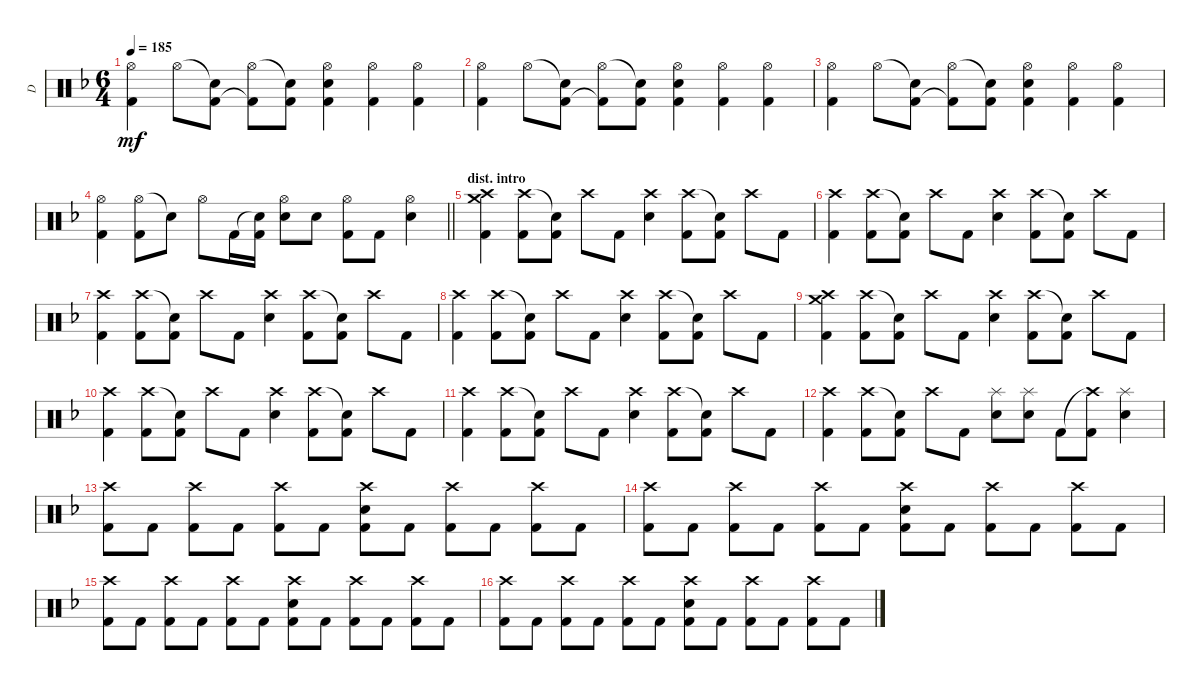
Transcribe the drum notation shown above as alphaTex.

\track ("D" "D") {instrument percussion}
\staff {score}
\articulation defaults
\ts (6 4)
\tempo 185
\clef neutral
\ks dminor
("Hi-Hat (open)" "Kick (hit) 2").4{dy mf} "Hi-Hat (open)".8 ("Snare (hit)"{t} "Kick (hit) 2").8 ("Hi-Hat (open)" "Kick (hit) 2"{t}).8 ("Snare (hit)"{t} "Kick (hit) 2").8 ("Hi-Hat (open)" "Snare (hit) 2" "Kick (hit) 2").4 ("Hi-Hat (open)" "Kick (hit) 2").4 ("Hi-Hat (open)" "Kick (hit) 2").4 |
("Hi-Hat (open)" "Kick (hit) 2").4 "Hi-Hat (open)".8 ("Snare (hit)"{t} "Kick (hit) 2").8 ("Hi-Hat (open)" "Kick (hit) 2"{t}).8 ("Snare (hit)"{t} "Kick (hit) 2").8 ("Hi-Hat (open)" "Snare (hit) 2" "Kick (hit) 2").4 ("Hi-Hat (open)" "Kick (hit) 2").4 ("Hi-Hat (open)" "Kick (hit) 2").4 |
("Hi-Hat (open)" "Kick (hit) 2").4 "Hi-Hat (open)".8 ("Snare (hit)"{t} "Kick (hit) 2").8 ("Hi-Hat (open)" "Kick (hit) 2"{t}).8 ("Snare (hit)"{t} "Kick (hit) 2").8 ("Hi-Hat (open)" "Snare (hit) 2" "Kick (hit) 2").4 ("Hi-Hat (open)" "Kick (hit) 2").4 ("Hi-Hat (open)" "Kick (hit) 2").4 |
\barLineRight lightlight
("Hi-Hat (open)" "Kick (hit) 2").4 ("Hi-Hat (open)" "Kick (hit) 2").8 "Snare (hit)"{t}.8 "Hi-Hat (open)".8 "Kick (hit) 2".16 ("Snare (hit)"{t} "Kick (hit) 2").16 ("Hi-Hat (open)" "Snare (hit) 2").8 "Snare (hit) 2".8 ("Hi-Hat (open)" "Kick (hit) 2").8 "Kick (hit) 2".8 ("Hi-Hat (open)" "Snare (hit) 2").4 |
\section ("" "dist. intro")
("Crash high (hit)" "Crash medium (hit)" "Kick (hit) 2").4 ("Crash high (hit)" "Kick (hit) 2").8 ("Snare (hit)"{t} "Kick (hit) 2").8 "Crash high (hit)".8 "Kick (hit) 2".8 ("Crash high (hit)" "Snare (hit) 2").4 ("Crash high (hit)" "Kick (hit) 2").8 ("Snare (hit)"{t} "Kick (hit) 2").8 "Crash high (hit)".8 "Kick (hit) 2".8 |
("Crash high (hit)" "Kick (hit) 2").4 ("Crash high (hit)" "Kick (hit) 2").8 ("Snare (hit)"{t} "Kick (hit) 2").8 "Crash high (hit)".8 "Kick (hit) 2".8 ("Crash high (hit)" "Snare (hit) 2").4 ("Crash high (hit)" "Kick (hit) 2").8 ("Snare (hit)"{t} "Kick (hit) 2").8 "Crash high (hit)".8 "Kick (hit) 2".8 |
("Crash high (hit)" "Kick (hit) 2").4 ("Crash high (hit)" "Kick (hit) 2").8 ("Snare (hit)"{t} "Kick (hit) 2").8 "Crash high (hit)".8 "Kick (hit) 2".8 ("Crash high (hit)" "Snare (hit) 2").4 ("Crash high (hit)" "Kick (hit) 2").8 ("Snare (hit)"{t} "Kick (hit) 2").8 "Crash high (hit)".8 "Kick (hit) 2".8 |
("Crash high (hit)" "Kick (hit) 2").4 ("Crash high (hit)" "Kick (hit) 2").8 ("Snare (hit)"{t} "Kick (hit) 2").8 "Crash high (hit)".8 "Kick (hit) 2".8 ("Crash high (hit)" "Snare (hit) 2").4 ("Crash high (hit)" "Kick (hit) 2").8 ("Snare (hit)"{t} "Kick (hit) 2").8 "Crash high (hit)".8 "Kick (hit) 2".8 |
("Crash high (hit)" "Crash medium (hit)" "Kick (hit) 2").4 ("Crash high (hit)" "Kick (hit) 2").8 ("Snare (hit)"{t} "Kick (hit) 2").8 "Crash high (hit)".8 "Kick (hit) 2".8 ("Crash high (hit)" "Snare (hit) 2").4 ("Crash high (hit)" "Kick (hit) 2").8 ("Snare (hit)"{t} "Kick (hit) 2").8 "Crash high (hit)".8 "Kick (hit) 2".8 |
("Crash high (hit)" "Kick (hit) 2").4 ("Crash high (hit)" "Kick (hit) 2").8 ("Snare (hit)"{t} "Kick (hit) 2").8 "Crash high (hit)".8 "Kick (hit) 2".8 ("Crash high (hit)" "Snare (hit) 2").4 ("Crash high (hit)" "Kick (hit) 2").8 ("Snare (hit)"{t} "Kick (hit) 2").8 "Crash high (hit)".8 "Kick (hit) 2".8 |
("Crash high (hit)" "Kick (hit) 2").4 ("Crash high (hit)" "Kick (hit) 2").8 ("Snare (hit)"{t} "Kick (hit) 2").8 "Crash high (hit)".8 "Kick (hit) 2".8 ("Crash high (hit)" "Snare (hit) 2").4 ("Crash high (hit)" "Kick (hit) 2").8 ("Snare (hit)"{t} "Kick (hit) 2").8 "Crash high (hit)".8 "Kick (hit) 2".8 |
("Crash high (hit)" "Kick (hit) 2").4 ("Crash high (hit)" "Kick (hit) 2").8 ("Snare (hit)"{t} "Kick (hit) 2").8 "Crash high (hit)".8 "Kick (hit) 2".8 ("Splash (hit)" "Snare (hit) 2").8 ("Splash (hit)" "Snare (hit) 2").8 "Kick (hit) 2".8 ("Crash high (hit)"{t} "Kick (hit) 2").8 ("Splash (hit)" "Snare (hit) 2").4 |
("Crash high (hit)" "Kick (hit) 2").8 "Kick (hit) 2".8 ("Crash high (hit)" "Kick (hit) 2").8 "Kick (hit) 2".8 ("Crash high (hit)" "Kick (hit) 2").8 "Kick (hit) 2".8 ("Crash high (hit)" "Snare (hit) 2" "Kick (hit) 2").8 "Kick (hit) 2".8 ("Crash high (hit)" "Kick (hit) 2").8 "Kick (hit) 2".8 ("Crash high (hit)" "Kick (hit) 2").8 "Kick (hit) 2".8 |
("Crash high (hit)" "Kick (hit) 2").8 "Kick (hit) 2".8 ("Crash high (hit)" "Kick (hit) 2").8 "Kick (hit) 2".8 ("Crash high (hit)" "Kick (hit) 2").8 "Kick (hit) 2".8 ("Crash high (hit)" "Snare (hit) 2" "Kick (hit) 2").8 "Kick (hit) 2".8 ("Crash high (hit)" "Kick (hit) 2").8 "Kick (hit) 2".8 ("Crash high (hit)" "Kick (hit) 2").8 "Kick (hit) 2".8 |
("Crash high (hit)" "Kick (hit) 2").8 "Kick (hit) 2".8 ("Crash high (hit)" "Kick (hit) 2").8 "Kick (hit) 2".8 ("Crash high (hit)" "Kick (hit) 2").8 "Kick (hit) 2".8 ("Crash high (hit)" "Snare (hit) 2" "Kick (hit) 2").8 "Kick (hit) 2".8 ("Crash high (hit)" "Kick (hit) 2").8 "Kick (hit) 2".8 ("Crash high (hit)" "Kick (hit) 2").8 "Kick (hit) 2".8 |
("Crash high (hit)" "Kick (hit) 2").8 "Kick (hit) 2".8 ("Crash high (hit)" "Kick (hit) 2").8 "Kick (hit) 2".8 ("Crash high (hit)" "Kick (hit) 2").8 "Kick (hit) 2".8 ("Crash high (hit)" "Snare (hit) 2" "Kick (hit) 2").8 "Kick (hit) 2".8 ("Crash high (hit)" "Kick (hit) 2").8 "Kick (hit) 2".8 ("Crash high (hit)" "Kick (hit) 2").8 "Kick (hit) 2".8
